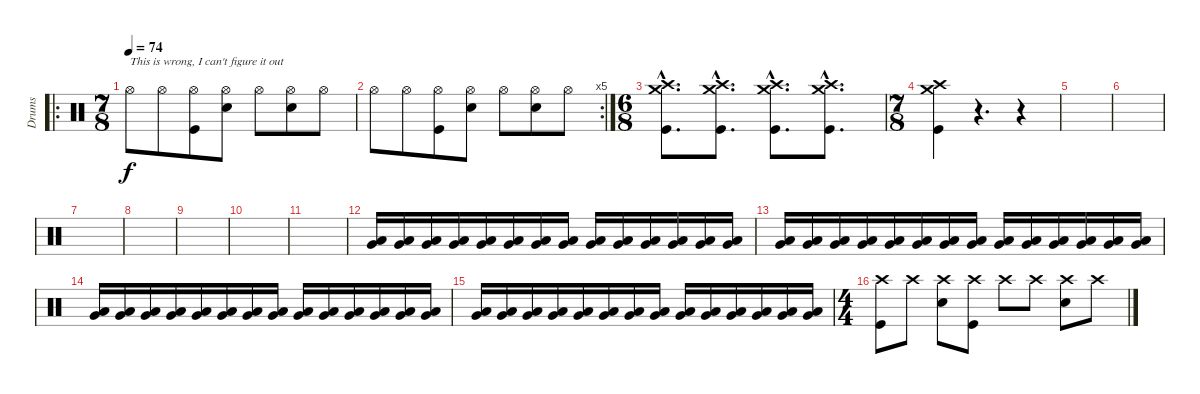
\track ("Drums" "Drums") {instrument percussion}
\staff {score}
\articulation defaults
\ro
\ts (7 8)
\tempo 74
\clef neutral
\ks c "Hi-Hat (open)".8{txt "This is wrong, I can't figure it out" dy f} "Hi-Hat (open)".8
("Hi-Hat (open)" "Kick (hit)").8 ("Hi-Hat (open)" "Snare (hit) 2").8 "Hi-Hat (open)".8 ("Hi-Hat (open)" "Snare (hit) 2").8 "Hi-Hat (open)".8 |
\rc 5 "Hi-Hat (open)".8 "Hi-Hat (open)".8
("Hi-Hat (open)" "Kick (hit)").8 ("Hi-Hat (open)" "Snare (hit) 2").8 "Hi-Hat (open)".8 ("Hi-Hat (open)" "Snare (hit) 2").8 "Hi-Hat (open)".8 |
\ts (6 8)
("Crash high (hit)"{hac} "Crash medium (hit)"{hac} "Kick (hit)"{hac}).8{d} ("Crash high (hit)"{hac} "Crash medium (hit)"{hac} "Kick (hit)"{hac}).8{d} ("Crash high (hit)"{hac} "Crash medium (hit)"{hac} "Kick (hit)"{hac}).8{d} ("Crash high (hit)"{hac} "Crash medium (hit)"{hac} "Kick (hit)"{hac}).8{d} |
\ts (7 8)
("Crash high (hit)" "Crash medium (hit)" "Kick (hit)").4 r.4{d} r.4 |
|
|
|
|
|
|
|
("Low Tom (hit)" "Very Low Tom (hit)").16{volume 0} ("Low Tom (hit)" "Very Low Tom (hit)").16 ("Low Tom (hit)" "Very Low Tom (hit)").16{volume 16} ("Low Tom (hit)" "Very Low Tom (hit)").16 ("Low Tom (hit)" "Very Low Tom (hit)").16 ("Low Tom (hit)" "Very Low Tom (hit)").16 ("Low Tom (hit)" "Very Low Tom (hit)").16 ("Low Tom (hit)" "Very Low Tom (hit)").16 ("Low Tom (hit)" "Very Low Tom (hit)").16 ("Low Tom (hit)" "Very Low Tom (hit)").16 ("Low Tom (hit)" "Very Low Tom (hit)").16 ("Low Tom (hit)" "Very Low Tom (hit)").16 ("Low Tom (hit)" "Very Low Tom (hit)").16 ("Low Tom (hit)" "Very Low Tom (hit)").16 |
("Low Tom (hit)" "Very Low Tom (hit)").16 ("Low Tom (hit)" "Very Low Tom (hit)").16 ("Low Tom (hit)" "Very Low Tom (hit)").16 ("Low Tom (hit)" "Very Low Tom (hit)").16 ("Low Tom (hit)" "Very Low Tom (hit)").16 ("Low Tom (hit)" "Very Low Tom (hit)").16 ("Low Tom (hit)" "Very Low Tom (hit)").16 ("Low Tom (hit)" "Very Low Tom (hit)").16 ("Low Tom (hit)" "Very Low Tom (hit)").16 ("Low Tom (hit)" "Very Low Tom (hit)").16 ("Low Tom (hit)" "Very Low Tom (hit)").16 ("Low Tom (hit)" "Very Low Tom (hit)").16 ("Low Tom (hit)" "Very Low Tom (hit)").16 ("Low Tom (hit)" "Very Low Tom (hit)").16 |
("Low Tom (hit)" "Very Low Tom (hit)").16 ("Low Tom (hit)" "Very Low Tom (hit)").16 ("Low Tom (hit)" "Very Low Tom (hit)").16 ("Low Tom (hit)" "Very Low Tom (hit)").16 ("Low Tom (hit)" "Very Low Tom (hit)").16 ("Low Tom (hit)" "Very Low Tom (hit)").16 ("Low Tom (hit)" "Very Low Tom (hit)").16 ("Low Tom (hit)" "Very Low Tom (hit)").16 ("Low Tom (hit)" "Very Low Tom (hit)").16 ("Low Tom (hit)" "Very Low Tom (hit)").16 ("Low Tom (hit)" "Very Low Tom (hit)").16 ("Low Tom (hit)" "Very Low Tom (hit)").16 ("Low Tom (hit)" "Very Low Tom (hit)").16 ("Low Tom (hit)" "Very Low Tom (hit)").16 |
("Low Tom (hit)" "Very Low Tom (hit)").16 ("Low Tom (hit)" "Very Low Tom (hit)").16 ("Low Tom (hit)" "Very Low Tom (hit)").16 ("Low Tom (hit)" "Very Low Tom (hit)").16 ("Low Tom (hit)" "Very Low Tom (hit)").16 ("Low Tom (hit)" "Very Low Tom (hit)").16 ("Low Tom (hit)" "Very Low Tom (hit)").16 ("Low Tom (hit)" "Very Low Tom (hit)").16 ("Low Tom (hit)" "Very Low Tom (hit)").16 ("Low Tom (hit)" "Very Low Tom (hit)").16 ("Low Tom (hit)" "Very Low Tom (hit)").16 ("Low Tom (hit)" "Very Low Tom (hit)").16 ("Low Tom (hit)" "Very Low Tom (hit)").16 ("Low Tom (hit)" "Very Low Tom (hit)").16 |
\ts (4 4)
("Crash high (hit)" "Kick (hit)").8 "Crash high (hit)".8 ("Crash high (hit)" "Snare (hit) 2").8 ("Crash high (hit)" "Kick (hit)").8 "Crash high (hit)".8 "Crash high (hit)".8 ("Crash high (hit)" "Snare (hit) 2").8 "Crash high (hit)".8
